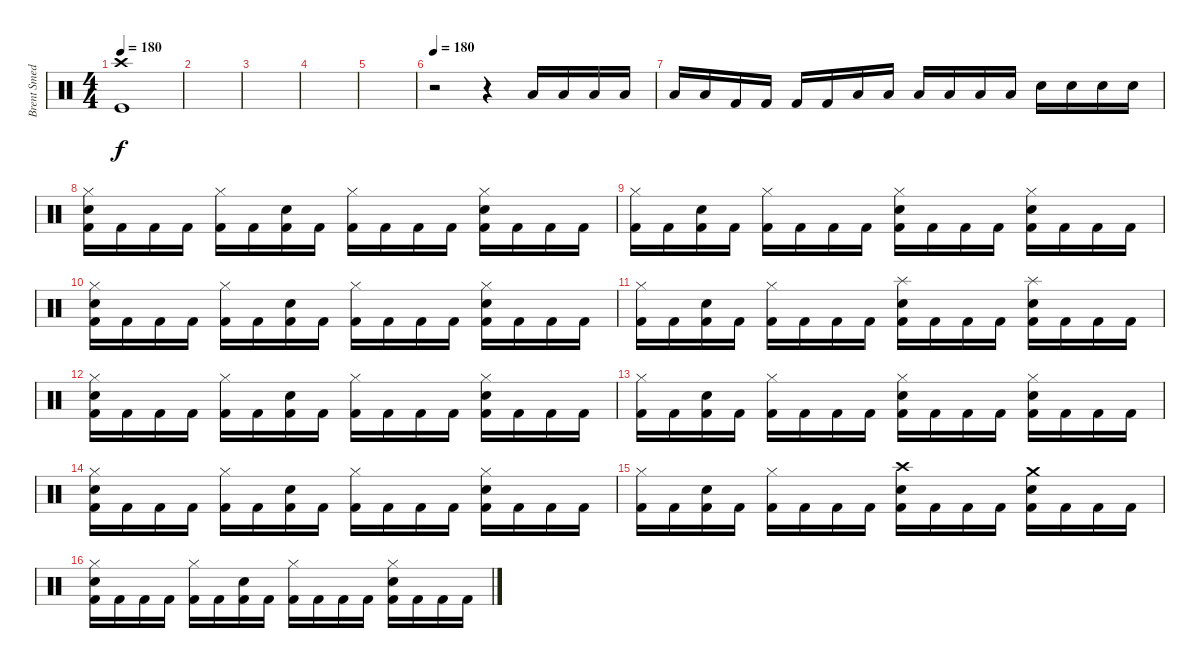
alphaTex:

\track ("Brent Smedley" "Brent Smed") {instrument percussion}
\staff {score}
\articulation defaults
\ts (4 4)
\tempo 180
\clef neutral
\ks c
("Crash high (hit)" "Kick (hit)").1{dy f} |
|
|
|
|
\tempo 180
r.2 r.4 "Low Tom (hit)".16 "Low Tom (hit)".16 "Low Tom (hit)".16 "Low Tom (hit)".16 |
"Low Tom (hit)".16 "Low Tom (hit)".16 "Kick (hit) 2".16 "Kick (hit) 2".16 "Kick (hit) 2".16 "Kick (hit) 2".16 "Low Tom (hit)".16 "Low Tom (hit)".16 "Low Tom (hit)".16 "Low Tom (hit)".16 "Low Tom (hit)".16 "Low Tom (hit)".16 "Snare (hit) 2".16 "Snare (hit) 2".16 "Snare (hit) 2".16 "Snare (hit) 2".16 |
("Hi-Hat (closed)" "Snare (hit) 2" "Kick (hit) 2").16 "Kick (hit) 2".16 "Kick (hit) 2".16 "Kick (hit) 2".16 ("Hi-Hat (closed)" "Kick (hit) 2").16 "Kick (hit) 2".16 ("Snare (hit) 2" "Kick (hit) 2").16 "Kick (hit) 2".16 ("Hi-Hat (closed)" "Kick (hit) 2").16 "Kick (hit) 2".16 "Kick (hit) 2".16 "Kick (hit) 2".16 ("Hi-Hat (closed)" "Snare (hit) 2" "Kick (hit) 2").16 "Kick (hit) 2".16 "Kick (hit) 2".16 "Kick (hit) 2".16 |
("Hi-Hat (closed)" "Kick (hit) 2").16 "Kick (hit) 2".16 ("Snare (hit) 2" "Kick (hit) 2").16 "Kick (hit) 2".16 ("Hi-Hat (closed)" "Kick (hit) 2").16 "Kick (hit) 2".16 "Kick (hit) 2".16 "Kick (hit) 2".16 ("Hi-Hat (closed)" "Snare (hit) 2" "Kick (hit) 2").16 "Kick (hit) 2".16 "Kick (hit) 2".16 "Kick (hit) 2".16 ("Hi-Hat (closed)" "Snare (hit) 2" "Kick (hit) 2").16 "Kick (hit) 2".16 "Kick (hit) 2".16 "Kick (hit) 2".16 |
("Hi-Hat (closed)" "Snare (hit) 2" "Kick (hit) 2").16 "Kick (hit) 2".16 "Kick (hit) 2".16 "Kick (hit) 2".16 ("Hi-Hat (closed)" "Kick (hit) 2").16 "Kick (hit) 2".16 ("Snare (hit) 2" "Kick (hit) 2").16 "Kick (hit) 2".16 ("Hi-Hat (closed)" "Kick (hit) 2").16 "Kick (hit) 2".16 "Kick (hit) 2".16 "Kick (hit) 2".16 ("Hi-Hat (closed)" "Snare (hit) 2" "Kick (hit) 2").16 "Kick (hit) 2".16 "Kick (hit) 2".16 "Kick (hit) 2".16 |
("Hi-Hat (closed)" "Kick (hit) 2").16 "Kick (hit) 2".16 ("Snare (hit) 2" "Kick (hit) 2").16 "Kick (hit) 2".16 ("Hi-Hat (closed)" "Kick (hit) 2").16 "Kick (hit) 2".16 "Kick (hit) 2".16 "Kick (hit) 2".16 ("Splash (hit)" "Snare (hit) 2" "Kick (hit) 2").16 "Kick (hit) 2".16 "Kick (hit) 2".16 "Kick (hit) 2".16 ("Splash (hit)" "Snare (hit) 2" "Kick (hit) 2").16 "Kick (hit) 2".16 "Kick (hit) 2".16 "Kick (hit) 2".16 |
("Hi-Hat (closed)" "Snare (hit) 2" "Kick (hit) 2").16 "Kick (hit) 2".16 "Kick (hit) 2".16 "Kick (hit) 2".16 ("Hi-Hat (closed)" "Kick (hit) 2").16 "Kick (hit) 2".16 ("Snare (hit) 2" "Kick (hit) 2").16 "Kick (hit) 2".16 ("Hi-Hat (closed)" "Kick (hit) 2").16 "Kick (hit) 2".16 "Kick (hit) 2".16 "Kick (hit) 2".16 ("Hi-Hat (closed)" "Snare (hit) 2" "Kick (hit) 2").16 "Kick (hit) 2".16 "Kick (hit) 2".16 "Kick (hit) 2".16 |
("Hi-Hat (closed)" "Kick (hit) 2").16 "Kick (hit) 2".16 ("Snare (hit) 2" "Kick (hit) 2").16 "Kick (hit) 2".16 ("Hi-Hat (closed)" "Kick (hit) 2").16 "Kick (hit) 2".16 "Kick (hit) 2".16 "Kick (hit) 2".16 ("Hi-Hat (closed)" "Snare (hit) 2" "Kick (hit) 2").16 "Kick (hit) 2".16 "Kick (hit) 2".16 "Kick (hit) 2".16 ("Hi-Hat (closed)" "Snare (hit) 2" "Kick (hit) 2").16 "Kick (hit) 2".16 "Kick (hit) 2".16 "Kick (hit) 2".16 |
("Hi-Hat (closed)" "Snare (hit) 2" "Kick (hit) 2").16 "Kick (hit) 2".16 "Kick (hit) 2".16 "Kick (hit) 2".16 ("Hi-Hat (closed)" "Kick (hit) 2").16 "Kick (hit) 2".16 ("Snare (hit) 2" "Kick (hit) 2").16 "Kick (hit) 2".16 ("Hi-Hat (closed)" "Kick (hit) 2").16 "Kick (hit) 2".16 "Kick (hit) 2".16 "Kick (hit) 2".16 ("Hi-Hat (closed)" "Snare (hit) 2" "Kick (hit) 2").16 "Kick (hit) 2".16 "Kick (hit) 2".16 "Kick (hit) 2".16 |
("Hi-Hat (closed)" "Kick (hit) 2").16 "Kick (hit) 2".16 ("Snare (hit) 2" "Kick (hit) 2").16 "Kick (hit) 2".16 ("Hi-Hat (closed)" "Kick (hit) 2").16 "Kick (hit) 2".16 "Kick (hit) 2".16 "Kick (hit) 2".16 ("Crash high (hit)" "Snare (hit) 2" "Kick (hit) 2").16 "Kick (hit) 2".16 "Kick (hit) 2".16 "Kick (hit) 2".16 ("Crash medium (hit)" "Snare (hit) 2" "Kick (hit) 2").16 "Kick (hit) 2".16 "Kick (hit) 2".16 "Kick (hit) 2".16 |
("Hi-Hat (closed)" "Snare (hit) 2" "Kick (hit) 2").16 "Kick (hit) 2".16 "Kick (hit) 2".16 "Kick (hit) 2".16 ("Hi-Hat (closed)" "Kick (hit) 2").16 "Kick (hit) 2".16 ("Snare (hit) 2" "Kick (hit) 2").16 "Kick (hit) 2".16 ("Hi-Hat (closed)" "Kick (hit) 2").16 "Kick (hit) 2".16 "Kick (hit) 2".16 "Kick (hit) 2".16 ("Hi-Hat (closed)" "Snare (hit) 2" "Kick (hit) 2").16 "Kick (hit) 2".16 "Kick (hit) 2".16 "Kick (hit) 2".16
